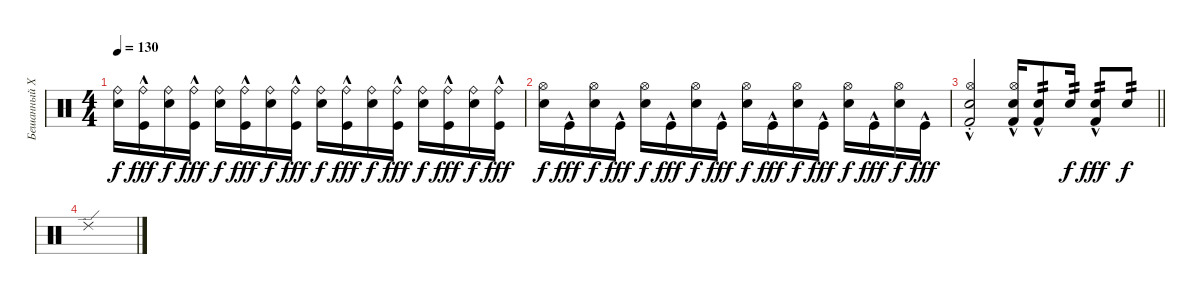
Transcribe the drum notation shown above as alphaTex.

\track ("Бешанный Харек" "Бешанный Х") {instrument percussion}
\staff {score}
\articulation defaults
\ts (4 4)
\tempo 130
\clef neutral
\ks c
("Ride (bell)" "Snare (hit) 2").16{dy f} ("Ride (bell)" "Kick (hit)"{hac}).16{dy fff} ("Ride (bell)" "Snare (hit) 2").16{dy f} ("Ride (bell)" "Kick (hit)"{hac}).16{dy fff} ("Ride (bell)" "Snare (hit) 2").16{dy f} ("Ride (bell)" "Kick (hit)"{hac}).16{dy fff} ("Ride (bell)" "Snare (hit) 2").16{dy f} ("Ride (bell)" "Kick (hit)"{hac}).16{dy fff} ("Ride (bell)" "Snare (hit) 2").16{dy f} ("Ride (bell)" "Kick (hit)"{hac}).16{dy fff} ("Ride (bell)" "Snare (hit) 2").16{dy f} ("Ride (bell)" "Kick (hit)"{hac}).16{dy fff} ("Ride (bell)" "Snare (hit) 2").16{dy f} ("Ride (bell)" "Kick (hit)"{hac}).16{dy fff} ("Ride (bell)" "Snare (hit) 2").16{dy f} ("Ride (bell)" "Kick (hit)"{hac}).16{dy fff} |
("Hi-Hat (open)" "Snare (hit) 2").16{dy f} "Kick (hit)"{hac}.16{dy fff} ("Hi-Hat (open)" "Snare (hit) 2").16{dy f} "Kick (hit)"{hac}.16{dy fff} ("Hi-Hat (open)" "Snare (hit) 2").16{dy f} "Kick (hit)"{hac}.16{dy fff} ("Hi-Hat (open)" "Snare (hit) 2").16{dy f} "Kick (hit)"{hac}.16{dy fff} ("Hi-Hat (open)" "Snare (hit) 2").16{dy f} "Kick (hit)"{hac}.16{dy fff} ("Hi-Hat (open)" "Snare (hit) 2").16{dy f} "Kick (hit)"{hac}.16{dy fff} ("Hi-Hat (open)" "Snare (hit) 2").16{dy f} "Kick (hit)"{hac}.16{dy fff} ("Hi-Hat (open)" "Snare (hit) 2").16{dy f} "Kick (hit)"{hac}.16{dy fff} |
\barLineRight lightlight
("Kick (hit) 2"{hac st} "Snare (hit) 2"{st} "Hi-Hat (open)"{st}).2 ("Kick (hit) 2"{hac} "Snare (hit) 2" "Hi-Hat (open)").16 ("Kick (hit) 2"{hac} "Snare (hit) 2").8{tp 2} "Snare (hit) 2".16{tp 2 dy f} ("Kick (hit) 2"{hac} "Snare (hit) 2").8{tp 2 dy fff} "Snare (hit) 2".8{tp 2 dy f} |
"Ride (edge) 2".1
